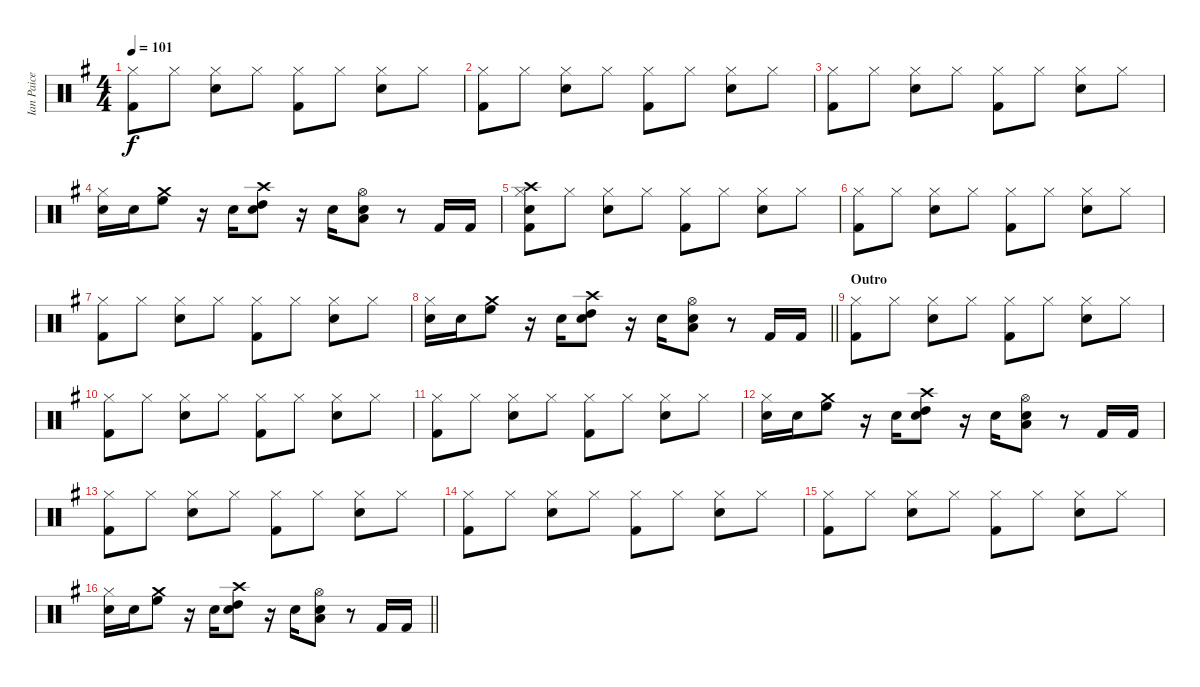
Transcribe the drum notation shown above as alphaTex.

\track ("Ian Paice" "Ian Paice") {instrument percussion}
\staff {score}
\articulation defaults
\ts (4 4)
\tempo 101
\clef neutral
\ks g
("Hi-Hat (closed)" "Kick (hit) 2").8{dy f} "Hi-Hat (closed)".8 ("Hi-Hat (closed)" "Snare (hit) 2").8 "Hi-Hat (closed)".8 ("Hi-Hat (closed)" "Kick (hit) 2").8 "Hi-Hat (closed)".8 ("Hi-Hat (closed)" "Snare (hit) 2").8 "Hi-Hat (closed)".8 |
("Hi-Hat (closed)" "Kick (hit) 2").8 "Hi-Hat (closed)".8 ("Hi-Hat (closed)" "Snare (hit) 2").8 "Hi-Hat (closed)".8 ("Hi-Hat (closed)" "Kick (hit) 2").8 "Hi-Hat (closed)".8 ("Hi-Hat (closed)" "Snare (hit) 2").8 "Hi-Hat (closed)".8 |
("Hi-Hat (closed)" "Kick (hit) 2").8 "Hi-Hat (closed)".8 ("Hi-Hat (closed)" "Snare (hit) 2").8 "Hi-Hat (closed)".8 ("Hi-Hat (closed)" "Kick (hit) 2").8 "Hi-Hat (closed)".8 ("Hi-Hat (closed)" "Snare (hit) 2").8 "Hi-Hat (closed)".8 |
("Snare (hit) 2" "Hi-Hat (closed)").16 "Snare (hit) 2".16 ("Crash medium (hit)" "High Floor Tom (hit)").8 r.16 "Snare (hit) 2".16 ("Crash high (hit)" "High Tom (hit)" "Snare (hit) 2").8 r.16 "Snare (hit) 2".16 ("Hi-Hat (open)" "Low Tom (hit)" "Snare (hit) 2").8 r.8 "Kick (hit) 2".16 "Kick (hit) 2".16 |
("Crash high (hit)" "Hi-Hat (closed)" "Snare (hit) 2" "Kick (hit) 2").8 "Hi-Hat (closed)".8 ("Hi-Hat (closed)" "Snare (hit) 2").8 "Hi-Hat (closed)".8 ("Hi-Hat (closed)" "Kick (hit) 2").8 "Hi-Hat (closed)".8 ("Hi-Hat (closed)" "Snare (hit) 2").8 "Hi-Hat (closed)".8 |
("Hi-Hat (closed)" "Kick (hit) 2").8 "Hi-Hat (closed)".8 ("Hi-Hat (closed)" "Snare (hit) 2").8 "Hi-Hat (closed)".8 ("Hi-Hat (closed)" "Kick (hit) 2").8 "Hi-Hat (closed)".8 ("Hi-Hat (closed)" "Snare (hit) 2").8 "Hi-Hat (closed)".8 |
("Hi-Hat (closed)" "Kick (hit) 2").8 "Hi-Hat (closed)".8 ("Hi-Hat (closed)" "Snare (hit) 2").8 "Hi-Hat (closed)".8 ("Hi-Hat (closed)" "Kick (hit) 2").8 "Hi-Hat (closed)".8 ("Hi-Hat (closed)" "Snare (hit) 2").8 "Hi-Hat (closed)".8 |
\barLineRight lightlight
("Snare (hit) 2" "Hi-Hat (closed)").16 "Snare (hit) 2".16 ("Crash medium (hit)" "High Floor Tom (hit)").8 r.16 "Snare (hit) 2".16 ("Crash high (hit)" "High Tom (hit)" "Snare (hit) 2").8 r.16 "Snare (hit) 2".16 ("Hi-Hat (open)" "Low Tom (hit)" "Snare (hit) 2").8 r.8 "Kick (hit) 2".16 "Kick (hit) 2".16 |
\section ("" "Outro")
("Hi-Hat (closed)" "Kick (hit) 2").8 "Hi-Hat (closed)".8 ("Hi-Hat (closed)" "Snare (hit) 2").8 "Hi-Hat (closed)".8 ("Hi-Hat (closed)" "Kick (hit) 2").8 "Hi-Hat (closed)".8 ("Hi-Hat (closed)" "Snare (hit) 2").8 "Hi-Hat (closed)".8 |
("Hi-Hat (closed)" "Kick (hit) 2").8 "Hi-Hat (closed)".8 ("Hi-Hat (closed)" "Snare (hit) 2").8 "Hi-Hat (closed)".8 ("Hi-Hat (closed)" "Kick (hit) 2").8 "Hi-Hat (closed)".8 ("Hi-Hat (closed)" "Snare (hit) 2").8 "Hi-Hat (closed)".8 |
("Hi-Hat (closed)" "Kick (hit) 2").8 "Hi-Hat (closed)".8 ("Hi-Hat (closed)" "Snare (hit) 2").8 "Hi-Hat (closed)".8 ("Hi-Hat (closed)" "Kick (hit) 2").8 "Hi-Hat (closed)".8 ("Hi-Hat (closed)" "Snare (hit) 2").8 "Hi-Hat (closed)".8 |
("Snare (hit) 2" "Hi-Hat (closed)").16 "Snare (hit) 2".16 ("Crash medium (hit)" "High Floor Tom (hit)").8 r.16 "Snare (hit) 2".16 ("Crash high (hit)" "High Tom (hit)" "Snare (hit) 2").8 r.16 "Snare (hit) 2".16 ("Hi-Hat (open)" "Low Tom (hit)" "Snare (hit) 2").8 r.8 "Kick (hit) 2".16 "Kick (hit) 2".16 |
("Hi-Hat (closed)" "Kick (hit) 2").8 "Hi-Hat (closed)".8 ("Hi-Hat (closed)" "Snare (hit) 2").8 "Hi-Hat (closed)".8 ("Hi-Hat (closed)" "Kick (hit) 2").8 "Hi-Hat (closed)".8 ("Hi-Hat (closed)" "Snare (hit) 2").8 "Hi-Hat (closed)".8 |
("Hi-Hat (closed)" "Kick (hit) 2").8 "Hi-Hat (closed)".8 ("Hi-Hat (closed)" "Snare (hit) 2").8 "Hi-Hat (closed)".8 ("Hi-Hat (closed)" "Kick (hit) 2").8 "Hi-Hat (closed)".8 ("Hi-Hat (closed)" "Snare (hit) 2").8 "Hi-Hat (closed)".8 |
("Hi-Hat (closed)" "Kick (hit) 2").8 "Hi-Hat (closed)".8 ("Hi-Hat (closed)" "Snare (hit) 2").8 "Hi-Hat (closed)".8 ("Hi-Hat (closed)" "Kick (hit) 2").8 "Hi-Hat (closed)".8 ("Hi-Hat (closed)" "Snare (hit) 2").8 "Hi-Hat (closed)".8 |
\barLineRight lightlight
("Snare (hit) 2" "Hi-Hat (closed)").16 "Snare (hit) 2".16 ("Crash medium (hit)" "High Floor Tom (hit)").8 r.16 "Snare (hit) 2".16 ("Crash high (hit)" "High Tom (hit)" "Snare (hit) 2").8 r.16 "Snare (hit) 2".16 ("Hi-Hat (open)" "Low Tom (hit)" "Snare (hit) 2").8 r.8 "Kick (hit) 2".16 "Kick (hit) 2".16
